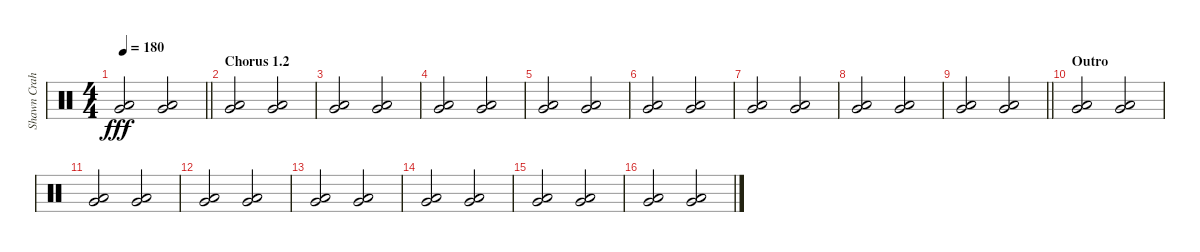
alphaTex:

\track ("Shawn Crahan" "Shawn Crah") {instrument percussion}
\staff {score}
\articulation defaults
\ts (4 4)
\tempo 180
\clef neutral
\barLineRight lightlight
\ks c
("Very Low Tom (hit)" "Low Floor Tom (hit)").2{dy fff} ("Very Low Tom (hit)" "Low Floor Tom (hit)").2 |
\section ("" "Chorus 1.2")
("Very Low Tom (hit)" "Low Floor Tom (hit)").2 ("Very Low Tom (hit)" "Low Floor Tom (hit)").2 |
("Very Low Tom (hit)" "Low Floor Tom (hit)").2 ("Very Low Tom (hit)" "Low Floor Tom (hit)").2 |
("Very Low Tom (hit)" "Low Floor Tom (hit)").2 ("Very Low Tom (hit)" "Low Floor Tom (hit)").2 |
("Very Low Tom (hit)" "Low Floor Tom (hit)").2 ("Very Low Tom (hit)" "Low Floor Tom (hit)").2 |
("Very Low Tom (hit)" "Low Floor Tom (hit)").2 ("Very Low Tom (hit)" "Low Floor Tom (hit)").2 |
("Very Low Tom (hit)" "Low Floor Tom (hit)").2 ("Very Low Tom (hit)" "Low Floor Tom (hit)").2 |
("Very Low Tom (hit)" "Low Floor Tom (hit)").2 ("Very Low Tom (hit)" "Low Floor Tom (hit)").2 |
\barLineRight lightlight
("Very Low Tom (hit)" "Low Floor Tom (hit)").2 ("Very Low Tom (hit)" "Low Floor Tom (hit)").2 |
\section ("" "Outro")
("Very Low Tom (hit)" "Low Floor Tom (hit)").2 ("Very Low Tom (hit)" "Low Floor Tom (hit)").2 |
("Very Low Tom (hit)" "Low Floor Tom (hit)").2 ("Very Low Tom (hit)" "Low Floor Tom (hit)").2 |
("Very Low Tom (hit)" "Low Floor Tom (hit)").2 ("Very Low Tom (hit)" "Low Floor Tom (hit)").2 |
("Very Low Tom (hit)" "Low Floor Tom (hit)").2 ("Very Low Tom (hit)" "Low Floor Tom (hit)").2 |
("Very Low Tom (hit)" "Low Floor Tom (hit)").2 ("Very Low Tom (hit)" "Low Floor Tom (hit)").2 |
("Very Low Tom (hit)" "Low Floor Tom (hit)").2 ("Very Low Tom (hit)" "Low Floor Tom (hit)").2 |
("Very Low Tom (hit)" "Low Floor Tom (hit)").2 ("Very Low Tom (hit)" "Low Floor Tom (hit)").2
